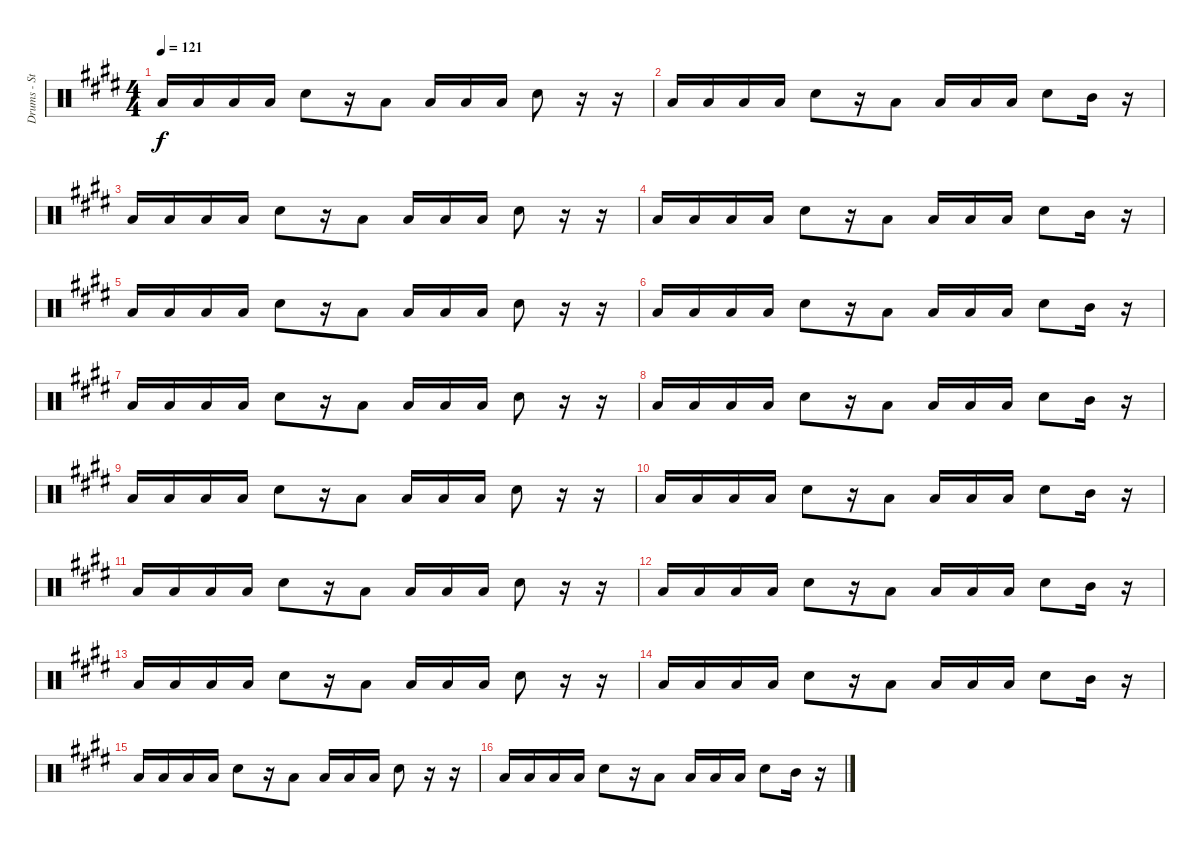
\track ("Drums - Stephen Morris" "Drums - St") {instrument percussion}
\staff {score}
\articulation defaults
\ts (4 4)
\tempo 121
\clef neutral
\ks e "Low Tom (hit)".16{dy f} "Low Tom (hit)".16 "Low Tom (hit)".16 "Low Tom (hit)".16 "Electric Snare (hit)".8
r.16 "Low Tom (hit)".8 "Low Tom (hit)".16 "Low Tom (hit)".16 "Low Tom (hit)".16 "Electric Snare (hit)".8 r.16 r.16 |
\ks c#minor "Low Tom (hit)".16 "Low Tom (hit)".16 "Low Tom (hit)".16 "Low Tom (hit)".16 "Electric Snare (hit)".8
r.16 "Low Tom (hit)".8 "Low Tom (hit)".16 "Low Tom (hit)".16 "Low Tom (hit)".16 "Electric Snare (hit)".8 "Mid Tom (hit)".16 r.16 |
\ks e "Low Tom (hit)".16 "Low Tom (hit)".16 "Low Tom (hit)".16 "Low Tom (hit)".16 "Electric Snare (hit)".8
r.16 "Low Tom (hit)".8 "Low Tom (hit)".16 "Low Tom (hit)".16 "Low Tom (hit)".16 "Electric Snare (hit)".8 r.16 r.16 |
\ks c#minor "Low Tom (hit)".16 "Low Tom (hit)".16 "Low Tom (hit)".16 "Low Tom (hit)".16 "Electric Snare (hit)".8
r.16 "Low Tom (hit)".8 "Low Tom (hit)".16 "Low Tom (hit)".16 "Low Tom (hit)".16 "Electric Snare (hit)".8 "Mid Tom (hit)".16 r.16 |
\ks e "Low Tom (hit)".16 "Low Tom (hit)".16 "Low Tom (hit)".16 "Low Tom (hit)".16 "Electric Snare (hit)".8
r.16 "Low Tom (hit)".8 "Low Tom (hit)".16 "Low Tom (hit)".16 "Low Tom (hit)".16 "Electric Snare (hit)".8 r.16 r.16 |
\ks c#minor "Low Tom (hit)".16 "Low Tom (hit)".16 "Low Tom (hit)".16 "Low Tom (hit)".16 "Electric Snare (hit)".8
r.16 "Low Tom (hit)".8 "Low Tom (hit)".16 "Low Tom (hit)".16 "Low Tom (hit)".16 "Electric Snare (hit)".8 "Mid Tom (hit)".16 r.16 |
"Low Tom (hit)".16 "Low Tom (hit)".16 "Low Tom (hit)".16 "Low Tom (hit)".16 "Electric Snare (hit)".8 r.16 "Low Tom (hit)".8 "Low Tom (hit)".16 "Low Tom (hit)".16 "Low Tom (hit)".16 "Electric Snare (hit)".8 r.16 r.16 |
\ks e "Low Tom (hit)".16 "Low Tom (hit)".16 "Low Tom (hit)".16 "Low Tom (hit)".16 "Electric Snare (hit)".8
r.16 "Low Tom (hit)".8 "Low Tom (hit)".16 "Low Tom (hit)".16 "Low Tom (hit)".16 "Electric Snare (hit)".8 "Mid Tom (hit)".16 r.16 |
\ks c#minor "Low Tom (hit)".16 "Low Tom (hit)".16 "Low Tom (hit)".16 "Low Tom (hit)".16 "Electric Snare (hit)".8
r.16 "Low Tom (hit)".8 "Low Tom (hit)".16 "Low Tom (hit)".16 "Low Tom (hit)".16 "Electric Snare (hit)".8 r.16 r.16 |
"Low Tom (hit)".16 "Low Tom (hit)".16 "Low Tom (hit)".16 "Low Tom (hit)".16 "Electric Snare (hit)".8 r.16 "Low Tom (hit)".8 "Low Tom (hit)".16 "Low Tom (hit)".16 "Low Tom (hit)".16 "Electric Snare (hit)".8 "Mid Tom (hit)".16 r.16 |
\ks e "Low Tom (hit)".16 "Low Tom (hit)".16 "Low Tom (hit)".16 "Low Tom (hit)".16 "Electric Snare (hit)".8
r.16 "Low Tom (hit)".8 "Low Tom (hit)".16 "Low Tom (hit)".16 "Low Tom (hit)".16 "Electric Snare (hit)".8 r.16 r.16 |
\ks c#minor "Low Tom (hit)".16 "Low Tom (hit)".16 "Low Tom (hit)".16 "Low Tom (hit)".16 "Electric Snare (hit)".8
r.16 "Low Tom (hit)".8 "Low Tom (hit)".16 "Low Tom (hit)".16 "Low Tom (hit)".16 "Electric Snare (hit)".8 "Mid Tom (hit)".16 r.16 |
"Low Tom (hit)".16 "Low Tom (hit)".16 "Low Tom (hit)".16 "Low Tom (hit)".16 "Electric Snare (hit)".8 r.16 "Low Tom (hit)".8 "Low Tom (hit)".16 "Low Tom (hit)".16 "Low Tom (hit)".16 "Electric Snare (hit)".8 r.16 r.16 |
\ks e "Low Tom (hit)".16 "Low Tom (hit)".16 "Low Tom (hit)".16 "Low Tom (hit)".16 "Electric Snare (hit)".8
r.16 "Low Tom (hit)".8 "Low Tom (hit)".16 "Low Tom (hit)".16 "Low Tom (hit)".16 "Electric Snare (hit)".8 "Mid Tom (hit)".16 r.16 |
\ks c#minor "Low Tom (hit)".16 "Low Tom (hit)".16 "Low Tom (hit)".16 "Low Tom (hit)".16 "Electric Snare (hit)".8
r.16 "Low Tom (hit)".8 "Low Tom (hit)".16 "Low Tom (hit)".16 "Low Tom (hit)".16 "Electric Snare (hit)".8 r.16 r.16 |
"Low Tom (hit)".16 "Low Tom (hit)".16 "Low Tom (hit)".16 "Low Tom (hit)".16 "Electric Snare (hit)".8 r.16 "Low Tom (hit)".8 "Low Tom (hit)".16 "Low Tom (hit)".16 "Low Tom (hit)".16 "Electric Snare (hit)".8 "Mid Tom (hit)".16 r.16
